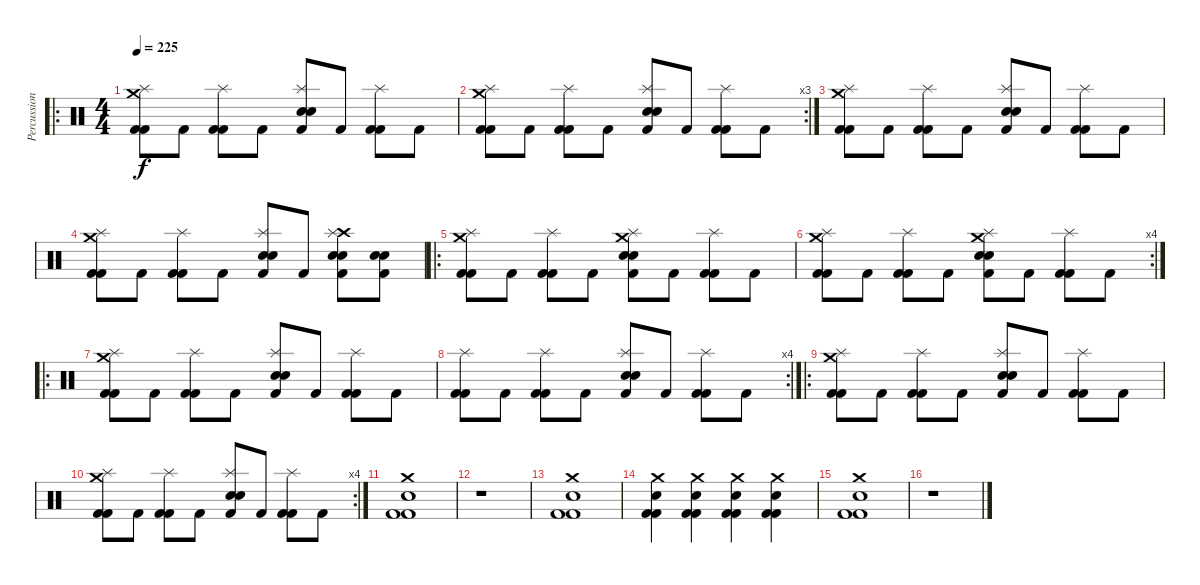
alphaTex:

\track ("Percussions" "Percussion") {instrument percussion}
\staff {score}
\articulation defaults
\ro
\ts (4 4)
\tempo 225
\clef neutral
\ks c
("Crash medium (hit)" "Kick (hit) 2" "Kick (hit) 2" "Splash (hit)").8{dy f} "Kick (hit) 2".8 ("Kick (hit) 2" "Kick (hit) 2" "Splash (hit)").8 "Kick (hit) 2".8 ("Kick (hit) 2" "Snare (hit) 2" "Snare (hit) 2" "Splash (hit)").8 "Kick (hit) 2".8 ("Kick (hit) 2" "Kick (hit) 2" "Splash (hit)").8 "Kick (hit) 2".8 |
\rc 3
("Crash medium (hit)" "Kick (hit) 2" "Kick (hit) 2" "Splash (hit)").8 "Kick (hit) 2".8 ("Kick (hit) 2" "Kick (hit) 2" "Splash (hit)").8 "Kick (hit) 2".8 ("Kick (hit) 2" "Snare (hit) 2" "Snare (hit) 2" "Splash (hit)").8 "Kick (hit) 2".8 ("Kick (hit) 2" "Kick (hit) 2" "Splash (hit)").8 "Kick (hit) 2".8 |
("Crash medium (hit)" "Kick (hit) 2" "Kick (hit) 2" "Splash (hit)").8 "Kick (hit) 2".8 ("Kick (hit) 2" "Kick (hit) 2" "Splash (hit)").8 "Kick (hit) 2".8 ("Kick (hit) 2" "Snare (hit) 2" "Snare (hit) 2" "Splash (hit)").8 "Kick (hit) 2".8 ("Kick (hit) 2" "Kick (hit) 2" "Splash (hit)").8 "Kick (hit) 2".8 |
("Crash medium (hit)" "Kick (hit) 2" "Kick (hit) 2" "Splash (hit)").8 "Kick (hit) 2".8 ("Kick (hit) 2" "Kick (hit) 2" "Splash (hit)").8 "Kick (hit) 2".8 ("Kick (hit) 2" "Snare (hit) 2" "Snare (hit) 2" "Splash (hit)").8 "Kick (hit) 2".8 ("Crash high (hit)" "Kick (hit) 2" "Snare (hit) 2" "Snare (hit) 2" "Splash (hit)").8 ("Kick (hit) 2" "Snare (hit) 2" "Snare (hit) 2").8 |
\ro
("Crash medium (hit)" "Kick (hit) 2" "Kick (hit) 2" "Splash (hit)").8 "Kick (hit) 2".8 ("Kick (hit) 2" "Kick (hit) 2" "Splash (hit)").8 "Kick (hit) 2".8 ("Crash medium (hit)" "Kick (hit) 2" "Snare (hit) 2" "Snare (hit) 2" "Splash (hit)").8 "Kick (hit) 2".8 ("Kick (hit) 2" "Kick (hit) 2" "Splash (hit)").8 "Kick (hit) 2".8 |
\rc 4
("Crash medium (hit)" "Kick (hit) 2" "Kick (hit) 2" "Splash (hit)").8 "Kick (hit) 2".8 ("Kick (hit) 2" "Kick (hit) 2" "Splash (hit)").8 "Kick (hit) 2".8 ("Crash medium (hit)" "Kick (hit) 2" "Snare (hit) 2" "Snare (hit) 2" "Splash (hit)").8 "Kick (hit) 2".8 ("Kick (hit) 2" "Kick (hit) 2" "Splash (hit)").8 "Kick (hit) 2".8 |
\ro
("Crash medium (hit)" "Kick (hit) 2" "Kick (hit) 2" "Splash (hit)").8 "Kick (hit) 2".8 ("Kick (hit) 2" "Kick (hit) 2" "Splash (hit)").8 "Kick (hit) 2".8 ("Kick (hit) 2" "Snare (hit) 2" "Snare (hit) 2" "Splash (hit)").8 "Kick (hit) 2".8 ("Kick (hit) 2" "Kick (hit) 2" "Splash (hit)").8 "Kick (hit) 2".8 |
\rc 4
("Kick (hit) 2" "Kick (hit) 2" "Splash (hit)").8 "Kick (hit) 2".8 ("Kick (hit) 2" "Kick (hit) 2" "Splash (hit)").8 "Kick (hit) 2".8 ("Kick (hit) 2" "Snare (hit) 2" "Snare (hit) 2" "Splash (hit)").8 "Kick (hit) 2".8 ("Kick (hit) 2" "Kick (hit) 2" "Splash (hit)").8 "Kick (hit) 2".8 |
\ro
("Crash medium (hit)" "Kick (hit) 2" "Kick (hit) 2" "Splash (hit)").8 "Kick (hit) 2".8 ("Kick (hit) 2" "Kick (hit) 2" "Splash (hit)").8 "Kick (hit) 2".8 ("Kick (hit) 2" "Snare (hit) 2" "Snare (hit) 2" "Splash (hit)").8 "Kick (hit) 2".8 ("Kick (hit) 2" "Kick (hit) 2" "Splash (hit)").8 "Kick (hit) 2".8 |
\rc 4
("Crash medium (hit)" "Kick (hit) 2" "Kick (hit) 2" "Splash (hit)").8 "Kick (hit) 2".8 ("Kick (hit) 2" "Kick (hit) 2" "Splash (hit)").8 "Kick (hit) 2".8 ("Kick (hit) 2" "Snare (hit) 2" "Snare (hit) 2" "Splash (hit)").8 "Kick (hit) 2".8 ("Kick (hit) 2" "Kick (hit) 2" "Splash (hit)").8 "Kick (hit) 2".8 |
("Crash medium (hit)" "Kick (hit) 2" "Kick (hit) 2" "Snare (hit) 2").1 |
r.1 |
("Crash medium (hit)" "Kick (hit) 2" "Kick (hit) 2" "Snare (hit) 2").1 |
("Crash medium (hit)" "Kick (hit) 2" "Kick (hit) 2" "Snare (hit) 2").4 ("Crash medium (hit)" "Kick (hit) 2" "Kick (hit) 2" "Snare (hit) 2").4 ("Crash medium (hit)" "Kick (hit) 2" "Kick (hit) 2" "Snare (hit) 2").4 ("Crash medium (hit)" "Kick (hit) 2" "Kick (hit) 2" "Snare (hit) 2").4 |
("Crash medium (hit)" "Kick (hit) 2" "Kick (hit) 2" "Snare (hit) 2").1 |
r.1
